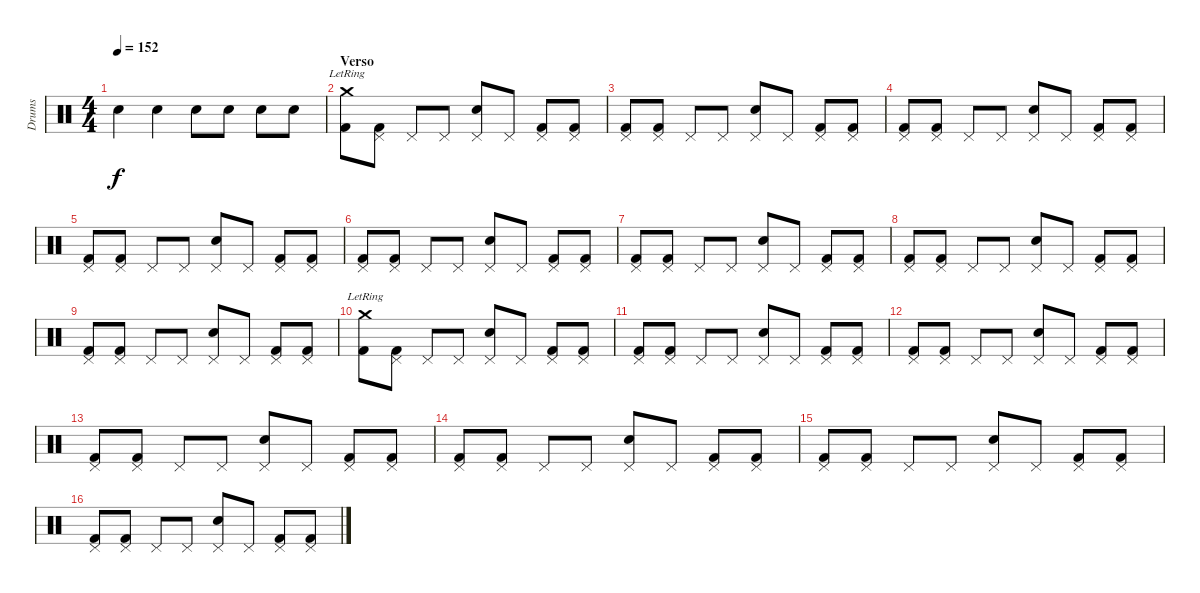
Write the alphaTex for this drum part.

\track ("Drums" "Drums") {instrument percussion}
\staff {score}
\articulation defaults
\ts (4 4)
\tempo 152
\clef neutral
\ks c "Electric Snare (hit)".4{dy f} "Electric Snare (hit)".4 "Electric Snare (hit)".8 "Electric Snare (hit)".8 "Electric Snare (hit)".8 "Electric Snare (hit)".8
|
\section ("" "Verso")
("Crash medium (hit)"{lr} "Kick (hit) 2").8 ("Pedal Hi-Hat (hit)" "Kick (hit) 2").8 "Pedal Hi-Hat (hit)".8 "Pedal Hi-Hat (hit)".8 ("Pedal Hi-Hat (hit)" "Electric Snare (hit)").8 "Pedal Hi-Hat (hit)".8 ("Pedal Hi-Hat (hit)" "Kick (hit) 2").8 ("Pedal Hi-Hat (hit)" "Kick (hit) 2").8 |
("Pedal Hi-Hat (hit)" "Kick (hit) 2").8 ("Pedal Hi-Hat (hit)" "Kick (hit) 2").8 "Pedal Hi-Hat (hit)".8 "Pedal Hi-Hat (hit)".8 ("Pedal Hi-Hat (hit)" "Electric Snare (hit)").8 "Pedal Hi-Hat (hit)".8 ("Pedal Hi-Hat (hit)" "Kick (hit) 2").8 ("Pedal Hi-Hat (hit)" "Kick (hit) 2").8 |
("Pedal Hi-Hat (hit)" "Kick (hit) 2").8 ("Pedal Hi-Hat (hit)" "Kick (hit) 2").8 "Pedal Hi-Hat (hit)".8 "Pedal Hi-Hat (hit)".8 ("Pedal Hi-Hat (hit)" "Electric Snare (hit)").8 "Pedal Hi-Hat (hit)".8 ("Pedal Hi-Hat (hit)" "Kick (hit) 2").8 ("Pedal Hi-Hat (hit)" "Kick (hit) 2").8 |
("Pedal Hi-Hat (hit)" "Kick (hit) 2").8 ("Pedal Hi-Hat (hit)" "Kick (hit) 2").8 "Pedal Hi-Hat (hit)".8 "Pedal Hi-Hat (hit)".8 ("Pedal Hi-Hat (hit)" "Electric Snare (hit)").8 "Pedal Hi-Hat (hit)".8 ("Pedal Hi-Hat (hit)" "Kick (hit) 2").8 ("Pedal Hi-Hat (hit)" "Kick (hit) 2").8 |
("Pedal Hi-Hat (hit)" "Kick (hit) 2").8 ("Pedal Hi-Hat (hit)" "Kick (hit) 2").8 "Pedal Hi-Hat (hit)".8 "Pedal Hi-Hat (hit)".8 ("Pedal Hi-Hat (hit)" "Electric Snare (hit)").8 "Pedal Hi-Hat (hit)".8 ("Pedal Hi-Hat (hit)" "Kick (hit) 2").8 ("Pedal Hi-Hat (hit)" "Kick (hit) 2").8 |
("Pedal Hi-Hat (hit)" "Kick (hit) 2").8 ("Pedal Hi-Hat (hit)" "Kick (hit) 2").8 "Pedal Hi-Hat (hit)".8 "Pedal Hi-Hat (hit)".8 ("Pedal Hi-Hat (hit)" "Electric Snare (hit)").8 "Pedal Hi-Hat (hit)".8 ("Pedal Hi-Hat (hit)" "Kick (hit) 2").8 ("Pedal Hi-Hat (hit)" "Kick (hit) 2").8 |
("Pedal Hi-Hat (hit)" "Kick (hit) 2").8 ("Pedal Hi-Hat (hit)" "Kick (hit) 2").8 "Pedal Hi-Hat (hit)".8 "Pedal Hi-Hat (hit)".8 ("Pedal Hi-Hat (hit)" "Electric Snare (hit)").8 "Pedal Hi-Hat (hit)".8 ("Pedal Hi-Hat (hit)" "Kick (hit) 2").8 ("Pedal Hi-Hat (hit)" "Kick (hit) 2").8 |
("Pedal Hi-Hat (hit)" "Kick (hit) 2").8 ("Pedal Hi-Hat (hit)" "Kick (hit) 2").8 "Pedal Hi-Hat (hit)".8 "Pedal Hi-Hat (hit)".8 ("Pedal Hi-Hat (hit)" "Electric Snare (hit)").8 "Pedal Hi-Hat (hit)".8 ("Pedal Hi-Hat (hit)" "Kick (hit) 2").8 ("Pedal Hi-Hat (hit)" "Kick (hit) 2").8 |
("Crash medium (hit)"{lr} "Kick (hit) 2").8 ("Pedal Hi-Hat (hit)" "Kick (hit) 2").8 "Pedal Hi-Hat (hit)".8 "Pedal Hi-Hat (hit)".8 ("Pedal Hi-Hat (hit)" "Electric Snare (hit)").8 "Pedal Hi-Hat (hit)".8 ("Pedal Hi-Hat (hit)" "Kick (hit) 2").8 ("Pedal Hi-Hat (hit)" "Kick (hit) 2").8 |
("Pedal Hi-Hat (hit)" "Kick (hit) 2").8 ("Pedal Hi-Hat (hit)" "Kick (hit) 2").8 "Pedal Hi-Hat (hit)".8 "Pedal Hi-Hat (hit)".8 ("Pedal Hi-Hat (hit)" "Electric Snare (hit)").8 "Pedal Hi-Hat (hit)".8 ("Pedal Hi-Hat (hit)" "Kick (hit) 2").8 ("Pedal Hi-Hat (hit)" "Kick (hit) 2").8 |
("Pedal Hi-Hat (hit)" "Kick (hit) 2").8 ("Pedal Hi-Hat (hit)" "Kick (hit) 2").8 "Pedal Hi-Hat (hit)".8 "Pedal Hi-Hat (hit)".8 ("Pedal Hi-Hat (hit)" "Electric Snare (hit)").8 "Pedal Hi-Hat (hit)".8 ("Pedal Hi-Hat (hit)" "Kick (hit) 2").8 ("Pedal Hi-Hat (hit)" "Kick (hit) 2").8 |
("Pedal Hi-Hat (hit)" "Kick (hit) 2").8 ("Pedal Hi-Hat (hit)" "Kick (hit) 2").8 "Pedal Hi-Hat (hit)".8 "Pedal Hi-Hat (hit)".8 ("Pedal Hi-Hat (hit)" "Electric Snare (hit)").8 "Pedal Hi-Hat (hit)".8 ("Pedal Hi-Hat (hit)" "Kick (hit) 2").8 ("Pedal Hi-Hat (hit)" "Kick (hit) 2").8 |
("Pedal Hi-Hat (hit)" "Kick (hit) 2").8 ("Pedal Hi-Hat (hit)" "Kick (hit) 2").8 "Pedal Hi-Hat (hit)".8 "Pedal Hi-Hat (hit)".8 ("Pedal Hi-Hat (hit)" "Electric Snare (hit)").8 "Pedal Hi-Hat (hit)".8 ("Pedal Hi-Hat (hit)" "Kick (hit) 2").8 ("Pedal Hi-Hat (hit)" "Kick (hit) 2").8 |
("Pedal Hi-Hat (hit)" "Kick (hit) 2").8 ("Pedal Hi-Hat (hit)" "Kick (hit) 2").8 "Pedal Hi-Hat (hit)".8 "Pedal Hi-Hat (hit)".8 ("Pedal Hi-Hat (hit)" "Electric Snare (hit)").8 "Pedal Hi-Hat (hit)".8 ("Pedal Hi-Hat (hit)" "Kick (hit) 2").8 ("Pedal Hi-Hat (hit)" "Kick (hit) 2").8 |
("Pedal Hi-Hat (hit)" "Kick (hit) 2").8 ("Pedal Hi-Hat (hit)" "Kick (hit) 2").8 "Pedal Hi-Hat (hit)".8 "Pedal Hi-Hat (hit)".8 ("Pedal Hi-Hat (hit)" "Electric Snare (hit)").8 "Pedal Hi-Hat (hit)".8 ("Pedal Hi-Hat (hit)" "Kick (hit) 2").8 ("Pedal Hi-Hat (hit)" "Kick (hit) 2").8
